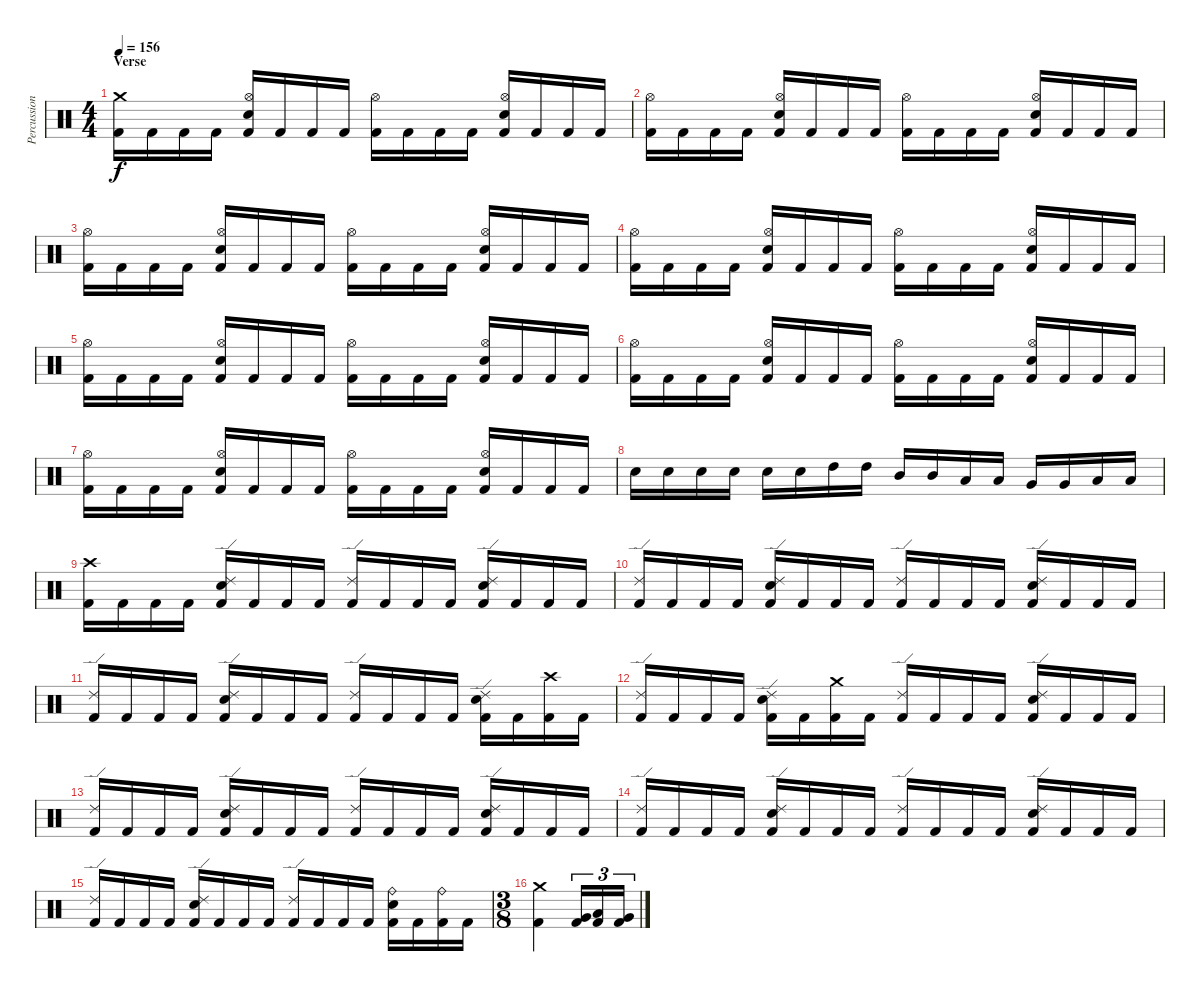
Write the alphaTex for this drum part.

\track ("Percussion" "Percussion") {instrument percussion}
\staff {score}
\articulation defaults
\ts (4 4)
\section ("" "Verse")
\tempo 156
\clef neutral
\ks c
("Crash medium (hit)" "Kick (hit) 2").16{dy f} "Kick (hit) 2".16 "Kick (hit) 2".16 "Kick (hit) 2".16 ("Hi-Hat (open)" "Electric Snare (hit)" "Kick (hit) 2").16 "Kick (hit) 2".16 "Kick (hit) 2".16 "Kick (hit) 2".16 ("Hi-Hat (open)" "Kick (hit) 2").16 "Kick (hit) 2".16 "Kick (hit) 2".16 "Kick (hit) 2".16 ("Hi-Hat (open)" "Electric Snare (hit)" "Kick (hit) 2").16 "Kick (hit) 2".16 "Kick (hit) 2".16 "Kick (hit) 2".16 |
("Hi-Hat (open)" "Kick (hit) 2").16 "Kick (hit) 2".16 "Kick (hit) 2".16 "Kick (hit) 2".16 ("Hi-Hat (open)" "Electric Snare (hit)" "Kick (hit) 2").16 "Kick (hit) 2".16 "Kick (hit) 2".16 "Kick (hit) 2".16 ("Hi-Hat (open)" "Kick (hit) 2").16 "Kick (hit) 2".16 "Kick (hit) 2".16 "Kick (hit) 2".16 ("Hi-Hat (open)" "Electric Snare (hit)" "Kick (hit) 2").16 "Kick (hit) 2".16 "Kick (hit) 2".16 "Kick (hit) 2".16 |
("Hi-Hat (open)" "Kick (hit) 2").16 "Kick (hit) 2".16 "Kick (hit) 2".16 "Kick (hit) 2".16 ("Hi-Hat (open)" "Electric Snare (hit)" "Kick (hit) 2").16 "Kick (hit) 2".16 "Kick (hit) 2".16 "Kick (hit) 2".16 ("Hi-Hat (open)" "Kick (hit) 2").16 "Kick (hit) 2".16 "Kick (hit) 2".16 "Kick (hit) 2".16 ("Hi-Hat (open)" "Electric Snare (hit)" "Kick (hit) 2").16 "Kick (hit) 2".16 "Kick (hit) 2".16 "Kick (hit) 2".16 |
("Hi-Hat (open)" "Kick (hit) 2").16 "Kick (hit) 2".16 "Kick (hit) 2".16 "Kick (hit) 2".16 ("Hi-Hat (open)" "Electric Snare (hit)" "Kick (hit) 2").16 "Kick (hit) 2".16 "Kick (hit) 2".16 "Kick (hit) 2".16 ("Hi-Hat (open)" "Kick (hit) 2").16 "Kick (hit) 2".16 "Kick (hit) 2".16 "Kick (hit) 2".16 ("Hi-Hat (open)" "Electric Snare (hit)" "Kick (hit) 2").16 "Kick (hit) 2".16 "Kick (hit) 2".16 "Kick (hit) 2".16 |
("Hi-Hat (open)" "Kick (hit) 2").16 "Kick (hit) 2".16 "Kick (hit) 2".16 "Kick (hit) 2".16 ("Hi-Hat (open)" "Electric Snare (hit)" "Kick (hit) 2").16 "Kick (hit) 2".16 "Kick (hit) 2".16 "Kick (hit) 2".16 ("Hi-Hat (open)" "Kick (hit) 2").16 "Kick (hit) 2".16 "Kick (hit) 2".16 "Kick (hit) 2".16 ("Hi-Hat (open)" "Electric Snare (hit)" "Kick (hit) 2").16 "Kick (hit) 2".16 "Kick (hit) 2".16 "Kick (hit) 2".16 |
("Hi-Hat (open)" "Kick (hit) 2").16 "Kick (hit) 2".16 "Kick (hit) 2".16 "Kick (hit) 2".16 ("Hi-Hat (open)" "Electric Snare (hit)" "Kick (hit) 2").16 "Kick (hit) 2".16 "Kick (hit) 2".16 "Kick (hit) 2".16 ("Hi-Hat (open)" "Kick (hit) 2").16 "Kick (hit) 2".16 "Kick (hit) 2".16 "Kick (hit) 2".16 ("Hi-Hat (open)" "Electric Snare (hit)" "Kick (hit) 2").16 "Kick (hit) 2".16 "Kick (hit) 2".16 "Kick (hit) 2".16 |
("Hi-Hat (open)" "Kick (hit) 2").16 "Kick (hit) 2".16 "Kick (hit) 2".16 "Kick (hit) 2".16 ("Hi-Hat (open)" "Electric Snare (hit)" "Kick (hit) 2").16 "Kick (hit) 2".16 "Kick (hit) 2".16 "Kick (hit) 2".16 ("Hi-Hat (open)" "Kick (hit) 2").16 "Kick (hit) 2".16 "Kick (hit) 2".16 "Kick (hit) 2".16 ("Hi-Hat (open)" "Electric Snare (hit)" "Kick (hit) 2").16 "Kick (hit) 2".16 "Kick (hit) 2".16 "Kick (hit) 2".16 |
"Electric Snare (hit)".16 "Electric Snare (hit)".16 "Electric Snare (hit)".16 "Electric Snare (hit)".16 "Electric Snare (hit)".16 "Electric Snare (hit)".16 "High Tom (hit)".16 "High Tom (hit)".16 "Mid Tom (hit)".16 "Mid Tom (hit)".16 "Low Tom (hit)".16 "Low Tom (hit)".16 "Very Low Tom (hit)".16 "Very Low Tom (hit)".16 "Low Floor Tom (hit)".16 "Low Floor Tom (hit)".16 |
("Crash high (hit)" "Kick (hit) 2").16 "Kick (hit) 2".16 "Kick (hit) 2".16 "Kick (hit) 2".16 ("Ride (edge) 2" "Electric Snare (hit)" "Kick (hit) 2").16 "Kick (hit) 2".16 "Kick (hit) 2".16 "Kick (hit) 2".16 ("Ride (edge) 2" "Kick (hit) 2").16 "Kick (hit) 2".16 "Kick (hit) 2".16 "Kick (hit) 2".16 ("Ride (edge) 2" "Electric Snare (hit)" "Kick (hit) 2").16 "Kick (hit) 2".16 "Kick (hit) 2".16 "Kick (hit) 2".16 |
("Ride (edge) 2" "Kick (hit) 2").16 "Kick (hit) 2".16 "Kick (hit) 2".16 "Kick (hit) 2".16 ("Ride (edge) 2" "Electric Snare (hit)" "Kick (hit) 2").16 "Kick (hit) 2".16 "Kick (hit) 2".16 "Kick (hit) 2".16 ("Ride (edge) 2" "Kick (hit) 2").16 "Kick (hit) 2".16 "Kick (hit) 2".16 "Kick (hit) 2".16 ("Ride (edge) 2" "Electric Snare (hit)" "Kick (hit) 2").16 "Kick (hit) 2".16 "Kick (hit) 2".16 "Kick (hit) 2".16 |
("Ride (edge) 2" "Kick (hit) 2").16 "Kick (hit) 2".16 "Kick (hit) 2".16 "Kick (hit) 2".16 ("Ride (edge) 2" "Electric Snare (hit)" "Kick (hit) 2").16 "Kick (hit) 2".16 "Kick (hit) 2".16 "Kick (hit) 2".16 ("Ride (edge) 2" "Kick (hit) 2").16 "Kick (hit) 2".16 "Kick (hit) 2".16 "Kick (hit) 2".16 ("Ride (edge) 2" "Electric Snare (hit)" "Kick (hit) 2").16 "Kick (hit) 2".16 ("Crash high (hit)" "Kick (hit) 2").16 "Kick (hit) 2".16 |
("Ride (edge) 2" "Kick (hit) 2").16 "Kick (hit) 2".16 "Kick (hit) 2".16 "Kick (hit) 2".16 ("Ride (edge) 2" "Electric Snare (hit)" "Kick (hit) 2").16 "Kick (hit) 2".16 ("Crash medium (hit)" "Kick (hit) 2").16 "Kick (hit) 2".16 ("Ride (edge) 2" "Kick (hit) 2").16 "Kick (hit) 2".16 "Kick (hit) 2".16 "Kick (hit) 2".16 ("Ride (edge) 2" "Electric Snare (hit)" "Kick (hit) 2").16 "Kick (hit) 2".16 "Kick (hit) 2".16 "Kick (hit) 2".16 |
("Ride (edge) 2" "Kick (hit) 2").16 "Kick (hit) 2".16 "Kick (hit) 2".16 "Kick (hit) 2".16 ("Ride (edge) 2" "Electric Snare (hit)" "Kick (hit) 2").16 "Kick (hit) 2".16 "Kick (hit) 2".16 "Kick (hit) 2".16 ("Ride (edge) 2" "Kick (hit) 2").16 "Kick (hit) 2".16 "Kick (hit) 2".16 "Kick (hit) 2".16 ("Ride (edge) 2" "Electric Snare (hit)" "Kick (hit) 2").16 "Kick (hit) 2".16 "Kick (hit) 2".16 "Kick (hit) 2".16 |
("Ride (edge) 2" "Kick (hit) 2").16 "Kick (hit) 2".16 "Kick (hit) 2".16 "Kick (hit) 2".16 ("Ride (edge) 2" "Electric Snare (hit)" "Kick (hit) 2").16 "Kick (hit) 2".16 "Kick (hit) 2".16 "Kick (hit) 2".16 ("Ride (edge) 2" "Kick (hit) 2").16 "Kick (hit) 2".16 "Kick (hit) 2".16 "Kick (hit) 2".16 ("Ride (edge) 2" "Electric Snare (hit)" "Kick (hit) 2").16 "Kick (hit) 2".16 "Kick (hit) 2".16 "Kick (hit) 2".16 |
("Ride (edge) 2" "Kick (hit) 2").16 "Kick (hit) 2".16 "Kick (hit) 2".16 "Kick (hit) 2".16 ("Ride (edge) 2" "Electric Snare (hit)" "Kick (hit) 2").16 "Kick (hit) 2".16 "Kick (hit) 2".16 "Kick (hit) 2".16 ("Ride (edge) 2" "Kick (hit) 2").16 "Kick (hit) 2".16 "Kick (hit) 2".16 "Kick (hit) 2".16 ("Ride (bell)" "Electric Snare (hit)" "Kick (hit) 2").16 "Kick (hit) 2".16 ("Ride (bell)" "Kick (hit) 2").16 "Kick (hit) 2".16 |
\ts (3 8)
("Crash medium (hit)" "Kick (hit) 2").4 ("Very Low Tom (hit)" "Kick (hit) 2").16{tu (3 2)} ("Low Floor Tom (hit)" "Kick (hit) 2").16{tu (3 2)} ("Very Low Tom (hit)" "Kick (hit) 2").16{tu (3 2)}
